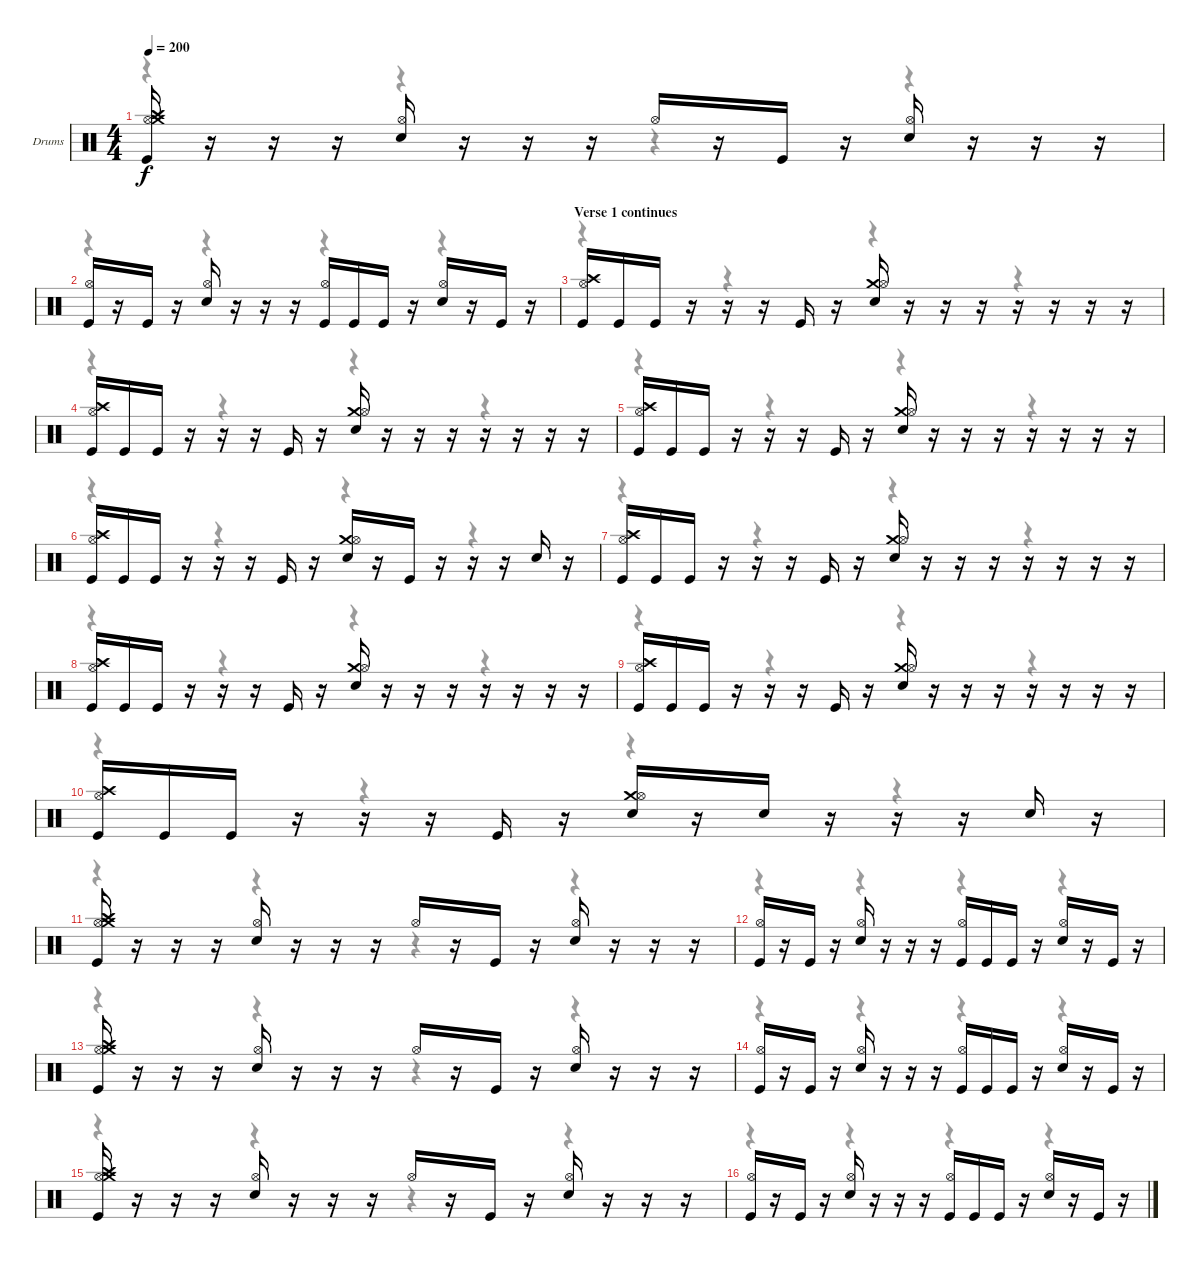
\bracketExtendMode nobrackets
\firstSystemTrackNameOrientation horizontal
\otherSystemsTrackNameOrientation horizontal
\track ("Drumkit" "Drums") {instrument percussion}
\staff {score}
\articulation defaults
\voice
\ts (4 4)
\tempo 200
\clef neutral
\ks c
("Kick (hit)" "Hi-Hat (open)" "Crash medium (hit)" "Crash high (hit)").16{dy f} r.16 r.16 r.16 ("Snare (hit) 2" "Hi-Hat (open)").16 r.16 r.16 r.16 "Hi-Hat (open)".16 r.16 "Kick (hit)".16 r.16 ("Snare (hit) 2" "Hi-Hat (open)").16 r.16 r.16 r.16 |
("Kick (hit)" "Hi-Hat (open)").16 r.16 "Kick (hit)".16 r.16 ("Snare (hit) 2" "Hi-Hat (open)").16 r.16 r.16 r.16 ("Kick (hit)" "Hi-Hat (open)").16 "Kick (hit)".16 "Kick (hit)".16 r.16 ("Snare (hit) 2" "Hi-Hat (open)").16 r.16 "Kick (hit)".16 r.16 |
\section ("" "Verse 1 continues")
("Kick (hit)" "Crash high (hit)" "Hi-Hat (open)").16 "Kick (hit)".16 "Kick (hit)".16 r.16 r.16 r.16 "Kick (hit)".16 r.16 ("Crash medium (hit)" "Snare (hit) 2" "Hi-Hat (open)").16 r.16 r.16 r.16 r.16 r.16 r.16 r.16 |
("Kick (hit)" "Crash high (hit)" "Hi-Hat (open)").16 "Kick (hit)".16 "Kick (hit)".16 r.16 r.16 r.16 "Kick (hit)".16 r.16 ("Crash medium (hit)" "Snare (hit) 2" "Hi-Hat (open)").16 r.16 r.16 r.16 r.16 r.16 r.16 r.16 |
("Kick (hit)" "Crash high (hit)" "Hi-Hat (open)").16 "Kick (hit)".16 "Kick (hit)".16 r.16 r.16 r.16 "Kick (hit)".16 r.16 ("Crash medium (hit)" "Snare (hit) 2" "Hi-Hat (open)").16 r.16 r.16 r.16 r.16 r.16 r.16 r.16 |
("Kick (hit)" "Crash high (hit)" "Hi-Hat (open)").16 "Kick (hit)".16 "Kick (hit)".16 r.16 r.16 r.16 "Kick (hit)".16 r.16 ("Crash medium (hit)" "Snare (hit) 2" "Hi-Hat (open)").16 r.16 "Kick (hit)".16 r.16 r.16 r.16 "Snare (hit) 2".16 r.16 |
("Kick (hit)" "Crash high (hit)" "Hi-Hat (open)").16 "Kick (hit)".16 "Kick (hit)".16 r.16 r.16 r.16 "Kick (hit)".16 r.16 ("Crash medium (hit)" "Snare (hit) 2" "Hi-Hat (open)").16 r.16 r.16 r.16 r.16 r.16 r.16 r.16 |
("Kick (hit)" "Crash high (hit)" "Hi-Hat (open)").16 "Kick (hit)".16 "Kick (hit)".16 r.16 r.16 r.16 "Kick (hit)".16 r.16 ("Crash medium (hit)" "Snare (hit) 2" "Hi-Hat (open)").16 r.16 r.16 r.16 r.16 r.16 r.16 r.16 |
("Kick (hit)" "Crash high (hit)" "Hi-Hat (open)").16 "Kick (hit)".16 "Kick (hit)".16 r.16 r.16 r.16 "Kick (hit)".16 r.16 ("Crash medium (hit)" "Snare (hit) 2" "Hi-Hat (open)").16 r.16 r.16 r.16 r.16 r.16 r.16 r.16 |
("Kick (hit)" "Crash high (hit)" "Hi-Hat (open)").16 "Kick (hit)".16 "Kick (hit)".16 r.16 r.16 r.16 "Kick (hit)".16 r.16 ("Crash medium (hit)" "Snare (hit) 2" "Hi-Hat (open)").16 r.16 "Snare (hit) 2".16 r.16 r.16 r.16 "Snare (hit) 2".16 r.16 |
("Kick (hit)" "Hi-Hat (open)" "Crash medium (hit)" "Crash high (hit)").16 r.16 r.16 r.16 ("Snare (hit) 2" "Hi-Hat (open)").16 r.16 r.16 r.16 "Hi-Hat (open)".16 r.16 "Kick (hit)".16 r.16 ("Snare (hit) 2" "Hi-Hat (open)").16 r.16 r.16 r.16 |
("Kick (hit)" "Hi-Hat (open)").16 r.16 "Kick (hit)".16 r.16 ("Snare (hit) 2" "Hi-Hat (open)").16 r.16 r.16 r.16 ("Kick (hit)" "Hi-Hat (open)").16 "Kick (hit)".16 "Kick (hit)".16 r.16 ("Snare (hit) 2" "Hi-Hat (open)").16 r.16 "Kick (hit)".16 r.16 |
("Kick (hit)" "Hi-Hat (open)" "Crash medium (hit)" "Crash high (hit)").16 r.16 r.16 r.16 ("Snare (hit) 2" "Hi-Hat (open)").16 r.16 r.16 r.16 "Hi-Hat (open)".16 r.16 "Kick (hit)".16 r.16 ("Snare (hit) 2" "Hi-Hat (open)").16 r.16 r.16 r.16 |
("Kick (hit)" "Hi-Hat (open)").16 r.16 "Kick (hit)".16 r.16 ("Snare (hit) 2" "Hi-Hat (open)").16 r.16 r.16 r.16 ("Kick (hit)" "Hi-Hat (open)").16 "Kick (hit)".16 "Kick (hit)".16 r.16 ("Snare (hit) 2" "Hi-Hat (open)").16 r.16 "Kick (hit)".16 r.16 |
("Kick (hit)" "Hi-Hat (open)" "Crash medium (hit)" "Crash high (hit)").16 r.16 r.16 r.16 ("Snare (hit) 2" "Hi-Hat (open)").16 r.16 r.16 r.16 "Hi-Hat (open)".16 r.16 "Kick (hit)".16 r.16 ("Snare (hit) 2" "Hi-Hat (open)").16 r.16 r.16 r.16 |
("Kick (hit)" "Hi-Hat (open)").16 r.16 "Kick (hit)".16 r.16 ("Snare (hit) 2" "Hi-Hat (open)").16 r.16 r.16 r.16 ("Kick (hit)" "Hi-Hat (open)").16 "Kick (hit)".16 "Kick (hit)".16 r.16 ("Snare (hit) 2" "Hi-Hat (open)").16 r.16 "Kick (hit)".16 r.16
\voice
\clef neutral
\ottava regular
\simile none
\ks c
r.4{dy mf} r.4 r.4 r.4 |
r.4 r.4 r.4 r.4 |
r.4 r.4 r.4 r.4 |
r.4 r.4 r.4 r.4 |
r.4 r.4 r.4 r.4 |
r.4 r.4 r.4 r.4 |
r.4 r.4 r.4 r.4 |
r.4 r.4 r.4 r.4 |
r.4 r.4 r.4 r.4 |
r.4 r.4 r.4 r.4 |
r.4 r.4 r.4 r.4 |
r.4 r.4 r.4 r.4 |
r.4 r.4 r.4 r.4 |
r.4 r.4 r.4 r.4 |
r.4 r.4 r.4 r.4 |
r.4 r.4 r.4 r.4
